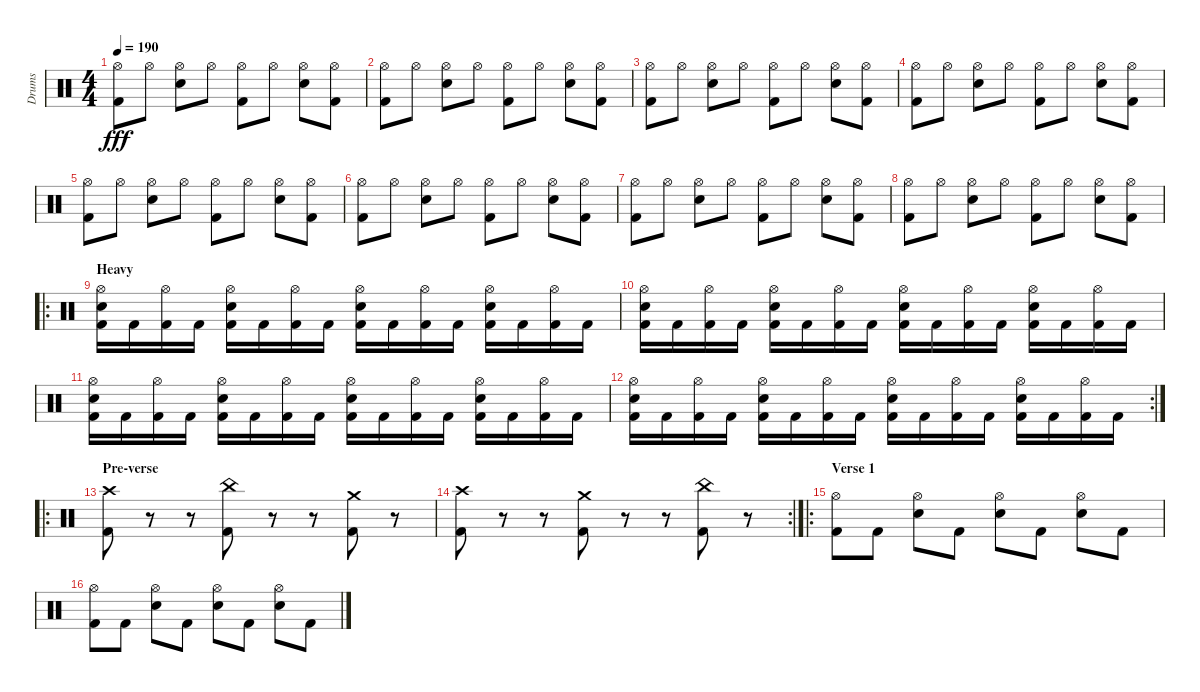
\track ("Drums" "Drums") {instrument percussion}
\staff {score}
\articulation defaults
\ts (4 4)
\tempo 190
\clef neutral
\ks c
("Hi-Hat (open)" "Kick (hit) 2").8{dy fff} "Hi-Hat (open)".8 ("Hi-Hat (open)" "Electric Snare (hit)").8 "Hi-Hat (open)".8 ("Hi-Hat (open)" "Kick (hit) 2").8 "Hi-Hat (open)".8 ("Hi-Hat (open)" "Electric Snare (hit)").8 ("Hi-Hat (open)" "Kick (hit) 2").8 |
("Hi-Hat (open)" "Kick (hit) 2").8 "Hi-Hat (open)".8 ("Hi-Hat (open)" "Electric Snare (hit)").8 "Hi-Hat (open)".8 ("Hi-Hat (open)" "Kick (hit) 2").8 "Hi-Hat (open)".8 ("Hi-Hat (open)" "Electric Snare (hit)").8 ("Hi-Hat (open)" "Kick (hit) 2").8 |
("Hi-Hat (open)" "Kick (hit) 2").8 "Hi-Hat (open)".8 ("Hi-Hat (open)" "Electric Snare (hit)").8 "Hi-Hat (open)".8 ("Hi-Hat (open)" "Kick (hit) 2").8 "Hi-Hat (open)".8 ("Hi-Hat (open)" "Electric Snare (hit)").8 ("Hi-Hat (open)" "Kick (hit) 2").8 |
("Hi-Hat (open)" "Kick (hit) 2").8 "Hi-Hat (open)".8 ("Hi-Hat (open)" "Electric Snare (hit)").8 "Hi-Hat (open)".8 ("Hi-Hat (open)" "Kick (hit) 2").8 "Hi-Hat (open)".8 ("Hi-Hat (open)" "Electric Snare (hit)").8 ("Hi-Hat (open)" "Kick (hit) 2").8 |
("Hi-Hat (open)" "Kick (hit) 2").8 "Hi-Hat (open)".8 ("Hi-Hat (open)" "Electric Snare (hit)").8 "Hi-Hat (open)".8 ("Hi-Hat (open)" "Kick (hit) 2").8 "Hi-Hat (open)".8 ("Hi-Hat (open)" "Electric Snare (hit)").8 ("Hi-Hat (open)" "Kick (hit) 2").8 |
("Hi-Hat (open)" "Kick (hit) 2").8 "Hi-Hat (open)".8 ("Hi-Hat (open)" "Electric Snare (hit)").8 "Hi-Hat (open)".8 ("Hi-Hat (open)" "Kick (hit) 2").8 "Hi-Hat (open)".8 ("Hi-Hat (open)" "Electric Snare (hit)").8 ("Hi-Hat (open)" "Kick (hit) 2").8 |
("Hi-Hat (open)" "Kick (hit) 2").8 "Hi-Hat (open)".8 ("Hi-Hat (open)" "Electric Snare (hit)").8 "Hi-Hat (open)".8 ("Hi-Hat (open)" "Kick (hit) 2").8 "Hi-Hat (open)".8 ("Hi-Hat (open)" "Electric Snare (hit)").8 ("Hi-Hat (open)" "Kick (hit) 2").8 |
("Hi-Hat (open)" "Kick (hit) 2").8 "Hi-Hat (open)".8 ("Hi-Hat (open)" "Electric Snare (hit)").8 "Hi-Hat (open)".8 ("Hi-Hat (open)" "Kick (hit) 2").8 "Hi-Hat (open)".8 ("Hi-Hat (open)" "Electric Snare (hit)").8 ("Hi-Hat (open)" "Kick (hit) 2").8 |
\ro
\section ("" "Heavy")
("Hi-Hat (open)" "Kick (hit) 2" "Electric Snare (hit)").16 "Kick (hit) 2".16 ("Hi-Hat (open)" "Kick (hit) 2").16 "Kick (hit) 2".16 ("Hi-Hat (open)" "Kick (hit) 2" "Electric Snare (hit)").16 "Kick (hit) 2".16 ("Hi-Hat (open)" "Kick (hit) 2").16 "Kick (hit) 2".16 ("Hi-Hat (open)" "Kick (hit) 2" "Electric Snare (hit)").16 "Kick (hit) 2".16 ("Hi-Hat (open)" "Kick (hit) 2").16 "Kick (hit) 2".16 ("Hi-Hat (open)" "Kick (hit) 2" "Electric Snare (hit)").16 "Kick (hit) 2".16 ("Hi-Hat (open)" "Kick (hit) 2").16 "Kick (hit) 2".16 |
("Hi-Hat (open)" "Kick (hit) 2" "Electric Snare (hit)").16 "Kick (hit) 2".16 ("Hi-Hat (open)" "Kick (hit) 2").16 "Kick (hit) 2".16 ("Hi-Hat (open)" "Kick (hit) 2" "Electric Snare (hit)").16 "Kick (hit) 2".16 ("Hi-Hat (open)" "Kick (hit) 2").16 "Kick (hit) 2".16 ("Hi-Hat (open)" "Kick (hit) 2" "Electric Snare (hit)").16 "Kick (hit) 2".16 ("Hi-Hat (open)" "Kick (hit) 2").16 "Kick (hit) 2".16 ("Hi-Hat (open)" "Kick (hit) 2" "Electric Snare (hit)").16 "Kick (hit) 2".16 ("Hi-Hat (open)" "Kick (hit) 2").16 "Kick (hit) 2".16 |
("Hi-Hat (open)" "Kick (hit) 2" "Electric Snare (hit)").16 "Kick (hit) 2".16 ("Hi-Hat (open)" "Kick (hit) 2").16 "Kick (hit) 2".16 ("Hi-Hat (open)" "Kick (hit) 2" "Electric Snare (hit)").16 "Kick (hit) 2".16 ("Hi-Hat (open)" "Kick (hit) 2").16 "Kick (hit) 2".16 ("Hi-Hat (open)" "Kick (hit) 2" "Electric Snare (hit)").16 "Kick (hit) 2".16 ("Hi-Hat (open)" "Kick (hit) 2").16 "Kick (hit) 2".16 ("Hi-Hat (open)" "Kick (hit) 2" "Electric Snare (hit)").16 "Kick (hit) 2".16 ("Hi-Hat (open)" "Kick (hit) 2").16 "Kick (hit) 2".16 |
\rc 2
("Hi-Hat (open)" "Kick (hit) 2" "Electric Snare (hit)").16 "Kick (hit) 2".16 ("Hi-Hat (open)" "Kick (hit) 2").16 "Kick (hit) 2".16 ("Hi-Hat (open)" "Kick (hit) 2" "Electric Snare (hit)").16 "Kick (hit) 2".16 ("Hi-Hat (open)" "Kick (hit) 2").16 "Kick (hit) 2".16 ("Hi-Hat (open)" "Kick (hit) 2" "Electric Snare (hit)").16 "Kick (hit) 2".16 ("Hi-Hat (open)" "Kick (hit) 2").16 "Kick (hit) 2".16 ("Hi-Hat (open)" "Kick (hit) 2" "Electric Snare (hit)").16 "Kick (hit) 2".16 ("Hi-Hat (open)" "Kick (hit) 2").16 "Kick (hit) 2".16 |
\ro
\section ("" "Pre-verse")
("Kick (hit) 2" "Crash high (hit)").8 r.8 r.8 ("Kick (hit) 2" "China (hit)").8 r.8 r.8 ("Kick (hit) 2" "Crash medium (hit)").8 r.8 |
\rc 2
("Kick (hit) 2" "Crash high (hit)").8 r.8 r.8 ("Kick (hit) 2" "Crash medium (hit)").8 r.8 r.8 ("Kick (hit) 2" "China (hit)").8 r.8 |
\ro
\section ("" "Verse 1")
("Kick (hit) 2" "Hi-Hat (open)").8 "Kick (hit) 2".8 ("Electric Snare (hit)" "Hi-Hat (open)").8 "Kick (hit) 2".8 ("Electric Snare (hit)" "Hi-Hat (open)").8 "Kick (hit) 2".8 ("Electric Snare (hit)" "Hi-Hat (open)").8 "Kick (hit) 2".8 |
("Kick (hit) 2" "Hi-Hat (open)").8 "Kick (hit) 2".8 ("Electric Snare (hit)" "Hi-Hat (open)").8 "Kick (hit) 2".8 ("Electric Snare (hit)" "Hi-Hat (open)").8 "Kick (hit) 2".8 ("Electric Snare (hit)" "Hi-Hat (open)").8 "Kick (hit) 2".8
